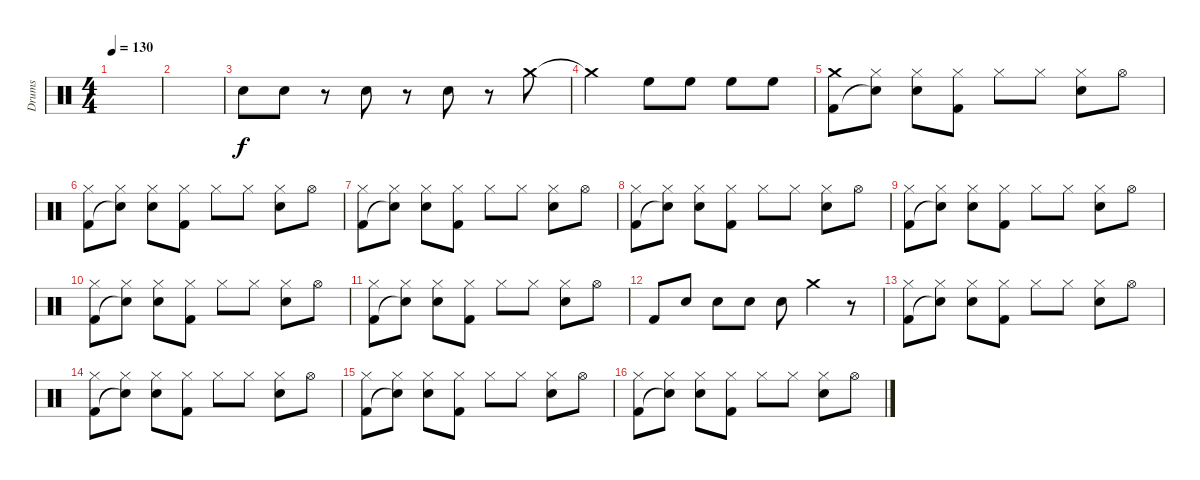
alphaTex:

\track ("Drums" "Drums") {instrument percussion}
\staff {score}
\articulation defaults
\ts (4 4)
\tempo 130
\clef neutral
\ks c
|
|
"Electric Snare (hit)".8 "Electric Snare (hit)".8 r.8 "Electric Snare (hit)".8 r.8 "Electric Snare (hit)".8 r.8 "Crash medium (hit)".8 |
"Crash medium (hit)"{t}.2 "High Floor Tom (hit)".8 "High Floor Tom (hit)".8 "High Floor Tom (hit)".8 "High Floor Tom (hit)".8 |
("Crash medium (hit)" "Kick (hit) 2").8 ("Hi-Hat (closed)" "Snare (hit)"{t}).8 ("Hi-Hat (closed)" "Electric Snare (hit)").8 ("Hi-Hat (closed)" "Kick (hit) 2").8 "Hi-Hat (closed)".8 "Hi-Hat (closed)".8 ("Hi-Hat (closed)" "Electric Snare (hit)").8 "Hi-Hat (open)".8 |
("Hi-Hat (closed)" "Kick (hit) 2").8 ("Hi-Hat (closed)" "Snare (hit)"{t}).8 ("Hi-Hat (closed)" "Electric Snare (hit)").8 ("Hi-Hat (closed)" "Kick (hit) 2").8 "Hi-Hat (closed)".8 "Hi-Hat (closed)".8 ("Hi-Hat (closed)" "Electric Snare (hit)").8 "Hi-Hat (open)".8 |
("Hi-Hat (closed)" "Kick (hit) 2").8 ("Hi-Hat (closed)" "Snare (hit)"{t}).8 ("Hi-Hat (closed)" "Electric Snare (hit)").8 ("Hi-Hat (closed)" "Kick (hit) 2").8 "Hi-Hat (closed)".8 "Hi-Hat (closed)".8 ("Hi-Hat (closed)" "Electric Snare (hit)").8 "Hi-Hat (open)".8 |
("Hi-Hat (closed)" "Kick (hit) 2").8 ("Hi-Hat (closed)" "Snare (hit)"{t}).8 ("Hi-Hat (closed)" "Electric Snare (hit)").8 ("Hi-Hat (closed)" "Kick (hit) 2").8 "Hi-Hat (closed)".8 "Hi-Hat (closed)".8 ("Hi-Hat (closed)" "Electric Snare (hit)").8 "Hi-Hat (open)".8 |
("Hi-Hat (closed)" "Kick (hit) 2").8 ("Hi-Hat (closed)" "Snare (hit)"{t}).8 ("Hi-Hat (closed)" "Electric Snare (hit)").8 ("Hi-Hat (closed)" "Kick (hit) 2").8 "Hi-Hat (closed)".8 "Hi-Hat (closed)".8 ("Hi-Hat (closed)" "Electric Snare (hit)").8 "Hi-Hat (open)".8 |
("Hi-Hat (closed)" "Kick (hit) 2").8 ("Hi-Hat (closed)" "Snare (hit)"{t}).8 ("Hi-Hat (closed)" "Electric Snare (hit)").8 ("Hi-Hat (closed)" "Kick (hit) 2").8 "Hi-Hat (closed)".8 "Hi-Hat (closed)".8 ("Hi-Hat (closed)" "Electric Snare (hit)").8 "Hi-Hat (open)".8 |
("Hi-Hat (closed)" "Kick (hit) 2").8 ("Hi-Hat (closed)" "Snare (hit)"{t}).8 ("Hi-Hat (closed)" "Electric Snare (hit)").8 ("Hi-Hat (closed)" "Kick (hit) 2").8 "Hi-Hat (closed)".8 "Hi-Hat (closed)".8 ("Hi-Hat (closed)" "Electric Snare (hit)").8 "Hi-Hat (open)".8 |
"Kick (hit) 2".8 "Electric Snare (hit)".8 "Electric Snare (hit)".8 "Electric Snare (hit)".8 "Electric Snare (hit)".8 "Crash medium (hit)".4 r.8 |
("Hi-Hat (closed)" "Kick (hit) 2").8 ("Hi-Hat (closed)" "Snare (hit)"{t}).8 ("Hi-Hat (closed)" "Electric Snare (hit)").8 ("Hi-Hat (closed)" "Kick (hit) 2").8 "Hi-Hat (closed)".8 "Hi-Hat (closed)".8 ("Hi-Hat (closed)" "Electric Snare (hit)").8 "Hi-Hat (open)".8 |
("Hi-Hat (closed)" "Kick (hit) 2").8 ("Hi-Hat (closed)" "Snare (hit)"{t}).8 ("Hi-Hat (closed)" "Electric Snare (hit)").8 ("Hi-Hat (closed)" "Kick (hit) 2").8 "Hi-Hat (closed)".8 "Hi-Hat (closed)".8 ("Hi-Hat (closed)" "Electric Snare (hit)").8 "Hi-Hat (open)".8 |
("Hi-Hat (closed)" "Kick (hit) 2").8 ("Hi-Hat (closed)" "Snare (hit)"{t}).8 ("Hi-Hat (closed)" "Electric Snare (hit)").8 ("Hi-Hat (closed)" "Kick (hit) 2").8 "Hi-Hat (closed)".8 "Hi-Hat (closed)".8 ("Hi-Hat (closed)" "Electric Snare (hit)").8 "Hi-Hat (open)".8 |
("Hi-Hat (closed)" "Kick (hit) 2").8 ("Hi-Hat (closed)" "Snare (hit)"{t}).8 ("Hi-Hat (closed)" "Electric Snare (hit)").8 ("Hi-Hat (closed)" "Kick (hit) 2").8 "Hi-Hat (closed)".8 "Hi-Hat (closed)".8 ("Hi-Hat (closed)" "Electric Snare (hit)").8 "Hi-Hat (open)".8
